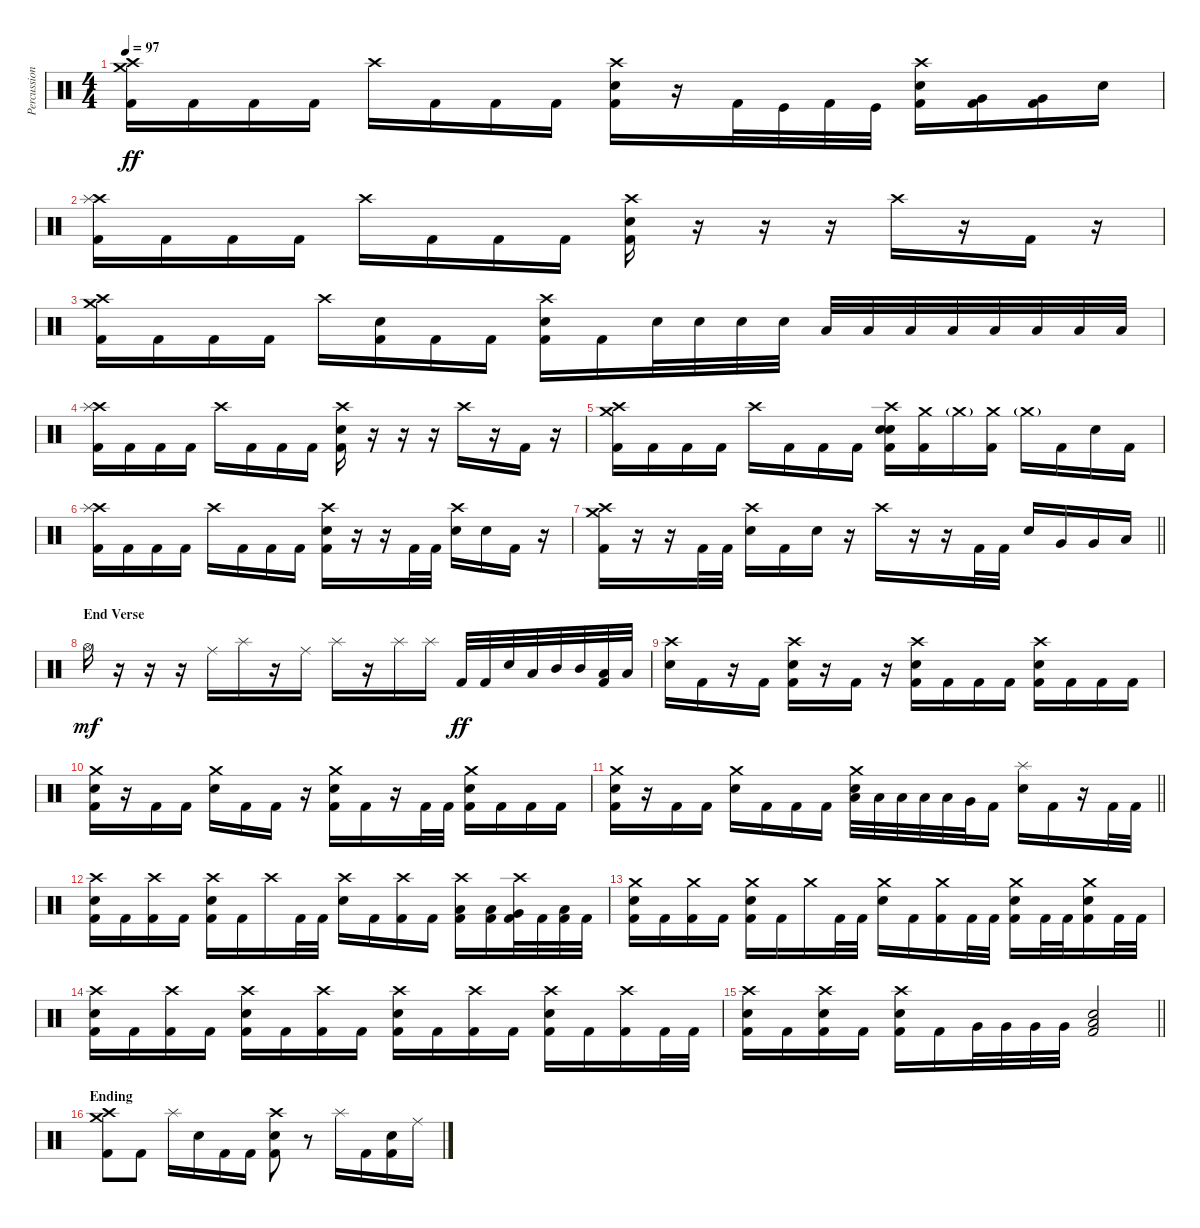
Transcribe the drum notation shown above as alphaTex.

\track ("Percussion" "Percussion") {instrument percussion}
\staff {score}
\articulation defaults
\ts (4 4)
\tempo 97
\clef neutral
\ks c
("Crash high (hit)" "Crash medium (hit)" "Kick (hit) 2").16{dy ff} "Kick (hit) 2".16 "Kick (hit) 2".16 "Kick (hit) 2".16 "Crash high (hit)".16 "Kick (hit) 2".16 "Kick (hit) 2".16 "Kick (hit) 2".16 ("Crash high (hit)" "Electric Snare (hit)" "Kick (hit) 2").16 r.16 "Kick (hit) 2".32 "Kick (hit)".32 "Kick (hit) 2".32 "Kick (hit)".32 ("Crash high (hit)" "Electric Snare (hit)" "Kick (hit) 2").16 ("Very Low Tom (hit)" "Kick (hit) 2").16 ("Very Low Tom (hit)" "Kick (hit) 2").16 "Electric Snare (hit)".16 |
("Crash high (hit)" "Splash (hit)" "Kick (hit) 2").16 "Kick (hit) 2".16 "Kick (hit) 2".16 "Kick (hit) 2".16 "Crash high (hit)".16 "Kick (hit) 2".16 "Kick (hit) 2".16 "Kick (hit) 2".16 ("Crash high (hit)" "Electric Snare (hit)" "Kick (hit) 2").16 r.16 r.16 r.16 "Crash high (hit)".16 r.16 "Kick (hit) 2".16 r.16 |
("Crash high (hit)" "Crash medium (hit)" "Kick (hit) 2").16 "Kick (hit) 2".16 "Kick (hit) 2".16 "Kick (hit) 2".16 "Crash high (hit)".16 ("Electric Snare (hit)" "Kick (hit) 2").16 "Kick (hit) 2".16 "Kick (hit) 2".16 ("Crash high (hit)" "Electric Snare (hit)" "Kick (hit) 2").16 "Kick (hit) 2".16 "Electric Snare (hit)".32 "Electric Snare (hit)".32 "Electric Snare (hit)".32 "Electric Snare (hit)".32 "Low Tom (hit)".32 "Low Tom (hit)".32 "Low Tom (hit)".32 "Low Tom (hit)".32 "Low Tom (hit)".32 "Low Tom (hit)".32 "Low Tom (hit)".32 "Low Tom (hit)".32 |
("Crash high (hit)" "Splash (hit)" "Kick (hit) 2").16 "Kick (hit) 2".16 "Kick (hit) 2".16 "Kick (hit) 2".16 "Crash high (hit)".16 "Kick (hit) 2".16 "Kick (hit) 2".16 "Kick (hit) 2".16 ("Crash high (hit)" "Electric Snare (hit)" "Kick (hit) 2").16 r.16 r.16 r.16 "Crash high (hit)".16 r.16 "Kick (hit) 2".16 r.16 |
("Crash high (hit)" "Crash medium (hit)" "Kick (hit) 2").16 "Kick (hit) 2".16 "Kick (hit) 2".16 "Kick (hit) 2".16 "Crash high (hit)".16 "Kick (hit) 2".16 "Kick (hit) 2".16 "Kick (hit) 2".16 ("Crash high (hit)" "Electric Snare (hit)" "Snare (hit) 2" "Kick (hit) 2").16 ("Crash medium (hit)" "Kick (hit) 2").16 "Crash medium (hit)"{g}.16 ("Crash medium (hit)" "Kick (hit) 2").16 "Crash medium (hit)"{g}.16 "Kick (hit) 2".16 "Electric Snare (hit)".16 "Kick (hit) 2".16 |
("Crash high (hit)" "Splash (hit)" "Kick (hit) 2").16 "Kick (hit) 2".16 "Kick (hit) 2".16 "Kick (hit) 2".16 "Crash high (hit)".16 "Kick (hit) 2".16 "Kick (hit) 2".16 "Kick (hit) 2".16 ("Crash high (hit)" "Electric Snare (hit)" "Kick (hit) 2").16 r.16 r.16 "Kick (hit) 2".32 "Kick (hit) 2".32 ("Crash high (hit)" "Electric Snare (hit)").16 "Electric Snare (hit)".16 "Kick (hit) 2".16 r.16 |
\barLineRight lightlight
("Crash high (hit)" "Crash medium (hit)" "Kick (hit) 2").16 r.16 r.16 "Kick (hit) 2".32 "Kick (hit) 2".32 ("Crash high (hit)" "Electric Snare (hit)").16 "Kick (hit) 2".16 "Electric Snare (hit)".16 r.16 "Crash high (hit)".16 r.16 r.16 "Kick (hit) 2".32 "Kick (hit) 2".32 "Electric Snare (hit)".16 "Very Low Tom (hit)".16 "Very Low Tom (hit)".16 "Low Floor Tom (hit)".16 |
\section ("" "End Verse")
"Hi-Hat (open)".16{dy mf} r.16 r.16 r.16 "Ride (middle)".16 "Splash (hit)".16 r.16 "Ride (middle)".16 "Splash (hit)".16 r.16 "Splash (hit)".16 "Splash (hit)".16 "Kick (hit) 2".32{dy ff} "Kick (hit) 2".32 "Electric Snare (hit)".32 "Low Floor Tom (hit)".32 "Mid Tom (hit)".32 "Mid Tom (hit)".32 ("Low Tom (hit)" "Kick (hit) 2").32 "Low Tom (hit)".32 |
("Crash high (hit)" "Electric Snare (hit)").16 "Kick (hit) 2".16 r.16 "Kick (hit) 2".16 ("Crash high (hit)" "Electric Snare (hit)" "Kick (hit) 2").16 r.16 "Kick (hit) 2".16 r.16 ("Crash high (hit)" "Electric Snare (hit)" "Kick (hit) 2").16 "Kick (hit) 2".16 "Kick (hit) 2".16 "Kick (hit) 2".16 ("Crash high (hit)" "Electric Snare (hit)" "Kick (hit) 2").16 "Kick (hit) 2".16 "Kick (hit) 2".16 "Kick (hit) 2".16 |
("Crash medium (hit)" "Electric Snare (hit)" "Kick (hit) 2").16 r.16 "Kick (hit) 2".16 "Kick (hit) 2".16 ("Crash medium (hit)" "Electric Snare (hit)").16 "Kick (hit) 2".16 "Kick (hit) 2".16 r.16 ("Crash medium (hit)" "Electric Snare (hit)" "Kick (hit) 2").16 "Kick (hit) 2".16 r.16 "Kick (hit) 2".32 "Kick (hit) 2".32 ("Crash medium (hit)" "Electric Snare (hit)" "Kick (hit) 2").16 "Kick (hit) 2".16 "Kick (hit) 2".16 "Kick (hit) 2".16 |
\barLineRight lightlight
("Crash medium (hit)" "Electric Snare (hit)" "Kick (hit) 2").16 r.16 "Kick (hit) 2".16 "Kick (hit) 2".16 ("Crash medium (hit)" "Electric Snare (hit)").16 "Kick (hit) 2".16 "Kick (hit) 2".16 "Kick (hit) 2".16 ("Electric Snare (hit)" "Crash medium (hit)" "Low Tom (hit)").32 "Low Tom (hit)".32 "Low Tom (hit)".32 "Low Tom (hit)".32 "Low Tom (hit)".32 "Very Low Tom (hit)".32 "Kick (hit) 2".16 ("Splash (hit)" "Electric Snare (hit)").16 "Kick (hit) 2".16 r.16 "Kick (hit) 2".32 "Kick (hit) 2".32 |
("Crash high (hit)" "Electric Snare (hit)" "Kick (hit) 2").16 "Kick (hit) 2".16 ("Crash high (hit)" "Kick (hit) 2").16 "Kick (hit) 2".16 ("Crash high (hit)" "Electric Snare (hit)" "Kick (hit) 2").16 "Kick (hit) 2".16 "Crash high (hit)".16 "Kick (hit) 2".32 "Kick (hit) 2".32 ("Crash high (hit)" "Electric Snare (hit)").16 "Kick (hit) 2".16 ("Crash high (hit)" "Kick (hit) 2").16 "Kick (hit) 2".16 ("Crash high (hit)" "Low Tom (hit)" "Kick (hit) 2").16 ("Low Tom (hit)" "Kick (hit) 2").16 ("Crash high (hit)" "Very Low Tom (hit)" "Kick (hit) 2").32 "Kick (hit) 2".32 ("Low Floor Tom (hit)" "Kick (hit) 2").32 "Kick (hit) 2".32 |
("Crash medium (hit)" "Electric Snare (hit)" "Kick (hit) 2").16 "Kick (hit) 2".16 ("Crash medium (hit)" "Kick (hit) 2").16 "Kick (hit) 2".16 ("Crash medium (hit)" "Electric Snare (hit)" "Kick (hit) 2").16 "Kick (hit) 2".16 "Crash medium (hit)".16 "Kick (hit) 2".32 "Kick (hit) 2".32 ("Crash medium (hit)" "Electric Snare (hit)").16 "Kick (hit) 2".16 ("Crash medium (hit)" "Kick (hit) 2").16 "Kick (hit) 2".32 "Kick (hit) 2".32 ("Crash medium (hit)" "Electric Snare (hit)" "Kick (hit) 2").16 "Kick (hit) 2".32 "Kick (hit) 2".32 ("Crash medium (hit)" "Electric Snare (hit)" "Kick (hit) 2").16 "Kick (hit) 2".32 "Kick (hit) 2".32 |
("Crash high (hit)" "Electric Snare (hit)" "Kick (hit) 2").16 "Kick (hit) 2".16 ("Crash high (hit)" "Kick (hit) 2").16 "Kick (hit) 2".16 ("Crash high (hit)" "Electric Snare (hit)" "Kick (hit) 2").16 "Kick (hit) 2".16 ("Crash high (hit)" "Kick (hit) 2").16 "Kick (hit) 2".16 ("Crash high (hit)" "Electric Snare (hit)" "Kick (hit) 2").16 "Kick (hit) 2".16 ("Crash high (hit)" "Kick (hit) 2").16 "Kick (hit) 2".16 ("Crash high (hit)" "Electric Snare (hit)" "Kick (hit) 2").16 "Kick (hit) 2".16 ("Crash high (hit)" "Kick (hit) 2").16 "Kick (hit) 2".32 "Kick (hit) 2".32 |
\barLineRight lightlight
("Crash high (hit)" "Electric Snare (hit)" "Kick (hit) 2").16 "Kick (hit) 2".16 ("Crash high (hit)" "Electric Snare (hit)" "Kick (hit) 2").16 "Kick (hit) 2".16 ("Crash high (hit)" "Electric Snare (hit)" "Kick (hit) 2").16 "Kick (hit) 2".16 "Very Low Tom (hit)".32 "Very Low Tom (hit)".32 "Very Low Tom (hit)".32 "Very Low Tom (hit)".32 ("Electric Snare (hit)" "Low Floor Tom (hit)" "Kick (hit) 2").2 |
\section ("" "Ending")
("Crash high (hit)" "Crash medium (hit)" "Kick (hit) 2").8 "Kick (hit) 2".8 "Splash (hit)".16 "Electric Snare (hit)".16 "Kick (hit) 2".16 "Kick (hit) 2".16 ("Crash high (hit)" "Electric Snare (hit)" "Kick (hit) 2").8 r.8 "Splash (hit)".16 "Kick (hit) 2".16 ("Electric Snare (hit)" "Kick (hit) 2").16 "Ride (middle)".16
